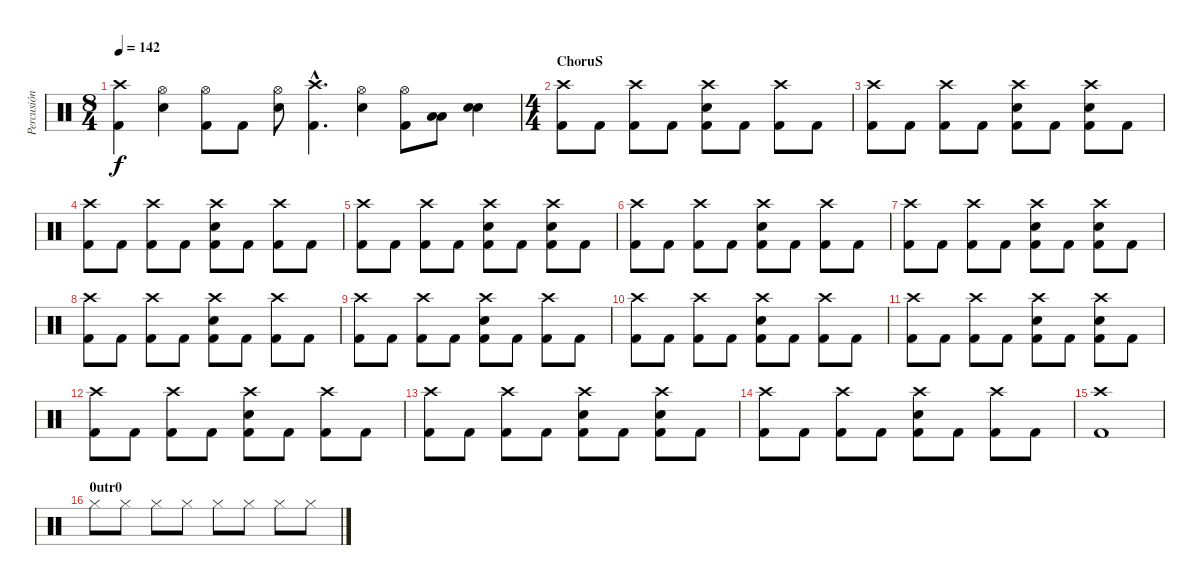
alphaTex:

\track ("Percusión  " "Percusión ") {instrument percussion}
\staff {score}
\articulation defaults
\ts (8 4)
\tempo 142
\clef neutral
\ks c
("Crash high (hit)" "Kick (hit) 2").4{dy f} ("Hi-Hat (open)" "Electric Snare (hit)").4 ("Hi-Hat (open)" "Kick (hit) 2").8 "Kick (hit) 2".8 ("Hi-Hat (open)" "Electric Snare (hit)").8 ("Crash high (hit)"{hac} "Kick (hit) 2"{hac}).4{d} ("Hi-Hat (open)" "Electric Snare (hit)").4 ("Hi-Hat (open)" "Kick (hit) 2").8 ("Low Tom (hit)" "Low Tom (hit)").8 ("Electric Snare (hit)" "Electric Snare (hit)").4 |
\ts (4 4)
\section ("" "ChoruS")
("Crash high (hit)" "Kick (hit) 2").8 "Kick (hit) 2".8 ("Crash high (hit)" "Kick (hit) 2").8 "Kick (hit) 2".8 ("Crash high (hit)" "Electric Snare (hit)" "Kick (hit) 2").8 "Kick (hit) 2".8 ("Crash high (hit)" "Kick (hit) 2").8 "Kick (hit) 2".8 |
("Crash high (hit)" "Kick (hit) 2").8 "Kick (hit) 2".8 ("Crash high (hit)" "Kick (hit) 2").8 "Kick (hit) 2".8 ("Crash high (hit)" "Electric Snare (hit)" "Kick (hit) 2").8 "Kick (hit) 2".8 ("Crash high (hit)" "Electric Snare (hit)" "Kick (hit) 2").8 "Kick (hit) 2".8 |
("Crash high (hit)" "Kick (hit) 2").8 "Kick (hit) 2".8 ("Crash high (hit)" "Kick (hit) 2").8 "Kick (hit) 2".8 ("Crash high (hit)" "Electric Snare (hit)" "Kick (hit) 2").8 "Kick (hit) 2".8 ("Crash high (hit)" "Kick (hit) 2").8 "Kick (hit) 2".8 |
("Crash high (hit)" "Kick (hit) 2").8 "Kick (hit) 2".8 ("Crash high (hit)" "Kick (hit) 2").8 "Kick (hit) 2".8 ("Crash high (hit)" "Electric Snare (hit)" "Kick (hit) 2").8 "Kick (hit) 2".8 ("Crash high (hit)" "Electric Snare (hit)" "Kick (hit) 2").8 "Kick (hit) 2".8 |
("Crash high (hit)" "Kick (hit) 2").8 "Kick (hit) 2".8 ("Crash high (hit)" "Kick (hit) 2").8 "Kick (hit) 2".8 ("Crash high (hit)" "Electric Snare (hit)" "Kick (hit) 2").8 "Kick (hit) 2".8 ("Crash high (hit)" "Kick (hit) 2").8 "Kick (hit) 2".8 |
("Crash high (hit)" "Kick (hit) 2").8 "Kick (hit) 2".8 ("Crash high (hit)" "Kick (hit) 2").8 "Kick (hit) 2".8 ("Crash high (hit)" "Electric Snare (hit)" "Kick (hit) 2").8 "Kick (hit) 2".8 ("Crash high (hit)" "Electric Snare (hit)" "Kick (hit) 2").8 "Kick (hit) 2".8 |
("Crash high (hit)" "Kick (hit) 2").8 "Kick (hit) 2".8 ("Crash high (hit)" "Kick (hit) 2").8 "Kick (hit) 2".8 ("Crash high (hit)" "Electric Snare (hit)" "Kick (hit) 2").8 "Kick (hit) 2".8 ("Crash high (hit)" "Kick (hit) 2").8 "Kick (hit) 2".8 |
("Crash high (hit)" "Kick (hit) 2").8 "Kick (hit) 2".8 ("Crash high (hit)" "Kick (hit) 2").8 "Kick (hit) 2".8 ("Crash high (hit)" "Electric Snare (hit)" "Kick (hit) 2").8 "Kick (hit) 2".8 ("Crash high (hit)" "Kick (hit) 2").8 "Kick (hit) 2".8 |
("Crash high (hit)" "Kick (hit) 2").8 "Kick (hit) 2".8 ("Crash high (hit)" "Kick (hit) 2").8 "Kick (hit) 2".8 ("Crash high (hit)" "Electric Snare (hit)" "Kick (hit) 2").8 "Kick (hit) 2".8 ("Crash high (hit)" "Kick (hit) 2").8 "Kick (hit) 2".8 |
("Crash high (hit)" "Kick (hit) 2").8 "Kick (hit) 2".8 ("Crash high (hit)" "Kick (hit) 2").8 "Kick (hit) 2".8 ("Crash high (hit)" "Electric Snare (hit)" "Kick (hit) 2").8 "Kick (hit) 2".8 ("Crash high (hit)" "Electric Snare (hit)" "Kick (hit) 2").8 "Kick (hit) 2".8 |
("Crash high (hit)" "Kick (hit) 2").8 "Kick (hit) 2".8 ("Crash high (hit)" "Kick (hit) 2").8 "Kick (hit) 2".8 ("Crash high (hit)" "Electric Snare (hit)" "Kick (hit) 2").8 "Kick (hit) 2".8 ("Crash high (hit)" "Kick (hit) 2").8 "Kick (hit) 2".8 |
("Crash high (hit)" "Kick (hit) 2").8 "Kick (hit) 2".8 ("Crash high (hit)" "Kick (hit) 2").8 "Kick (hit) 2".8 ("Crash high (hit)" "Electric Snare (hit)" "Kick (hit) 2").8 "Kick (hit) 2".8 ("Crash high (hit)" "Electric Snare (hit)" "Kick (hit) 2").8 "Kick (hit) 2".8 |
("Crash high (hit)" "Kick (hit) 2").8 "Kick (hit) 2".8 ("Crash high (hit)" "Kick (hit) 2").8 "Kick (hit) 2".8 ("Crash high (hit)" "Electric Snare (hit)" "Kick (hit) 2").8 "Kick (hit) 2".8 ("Crash high (hit)" "Kick (hit) 2").8 "Kick (hit) 2".8 |
("Crash high (hit)" "Kick (hit) 2").1 |
\section ("" "0utr0")
"Hi-Hat (closed)".8 "Hi-Hat (closed)".8 "Hi-Hat (closed)".8 "Hi-Hat (closed)".8 "Hi-Hat (closed)".8 "Hi-Hat (closed)".8 "Hi-Hat (closed)".8 "Hi-Hat (closed)".8
